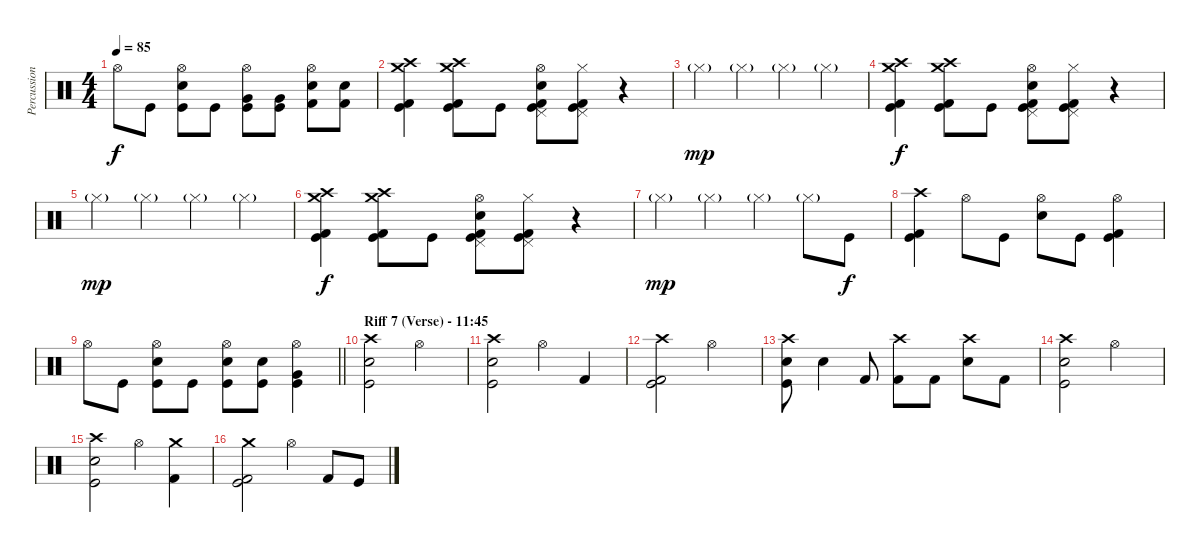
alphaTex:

\track ("Percussion" "Percussion") {instrument percussion}
\staff {score}
\articulation defaults
\ts (4 4)
\tempo 85
\clef neutral
\ks c "Hi-Hat (open)".8{dy f} "Kick (hit)".8
("Kick (hit)" "Snare (hit) 2" "Hi-Hat (open)").8 "Kick (hit)".8 ("Kick (hit)" "Very Low Tom (hit)" "Hi-Hat (open)").8 ("Kick (hit)" "Very Low Tom (hit)").8 ("Kick (hit) 2" "Snare (hit) 2" "Hi-Hat (open)").8 ("Kick (hit) 2" "Snare (hit) 2").8 |
("Kick (hit)" "Kick (hit) 2" "Crash high (hit)" "Crash medium (hit)").4 ("Kick (hit)" "Kick (hit) 2" "Crash high (hit)" "Crash medium (hit)").8 "Kick (hit)".8 ("Kick (hit)" "Kick (hit) 2" "Snare (hit) 2" "Pedal Hi-Hat (hit)" "Hi-Hat (open)").8 ("Kick (hit)" "Kick (hit) 2" "Pedal Hi-Hat (hit)" "Hi-Hat (closed)").8 r.4 |
"Hi-Hat (closed)"{g}.4{dy mp} "Hi-Hat (closed)"{g}.4 "Hi-Hat (closed)"{g}.4 "Hi-Hat (closed)"{g}.4 |
("Kick (hit)" "Kick (hit) 2" "Crash high (hit)" "Crash medium (hit)").4{dy f} ("Kick (hit)" "Kick (hit) 2" "Crash high (hit)" "Crash medium (hit)").8 "Kick (hit)".8 ("Kick (hit)" "Kick (hit) 2" "Snare (hit) 2" "Pedal Hi-Hat (hit)" "Hi-Hat (open)").8 ("Kick (hit)" "Kick (hit) 2" "Pedal Hi-Hat (hit)" "Hi-Hat (closed)").8 r.4 |
"Hi-Hat (closed)"{g}.4{dy mp} "Hi-Hat (closed)"{g}.4 "Hi-Hat (closed)"{g}.4 "Hi-Hat (closed)"{g}.4 |
("Kick (hit)" "Kick (hit) 2" "Crash high (hit)" "Crash medium (hit)").4{dy f} ("Kick (hit)" "Kick (hit) 2" "Crash high (hit)" "Crash medium (hit)").8 "Kick (hit)".8 ("Kick (hit)" "Kick (hit) 2" "Snare (hit) 2" "Pedal Hi-Hat (hit)" "Hi-Hat (open)").8 ("Kick (hit)" "Kick (hit) 2" "Pedal Hi-Hat (hit)" "Hi-Hat (closed)").8 r.4 |
"Hi-Hat (closed)"{g}.4{dy mp} "Hi-Hat (closed)"{g}.4 "Hi-Hat (closed)"{g}.4 "Hi-Hat (closed)"{g}.8 "Kick (hit)".8{dy f} |
("Kick (hit)" "Kick (hit) 2" "Crash high (hit)").4 "Hi-Hat (open)".8 "Kick (hit)".8 ("Snare (hit) 2" "Hi-Hat (open)").8 "Kick (hit)".8 ("Kick (hit)" "Kick (hit) 2" "Hi-Hat (open)").4 |
\barLineRight lightlight "Hi-Hat (open)".8 "Kick (hit)".8
("Kick (hit)" "Snare (hit) 2" "Hi-Hat (open)").8 "Kick (hit)".8 ("Kick (hit)" "Snare (hit) 2" "Hi-Hat (open)").8 ("Kick (hit)" "Snare (hit) 2").8 ("Kick (hit)" "Very Low Tom (hit)" "Hi-Hat (open)").4 |
\section ("" "Riff 7 (Verse) - 11:45")
("Kick (hit)" "Snare (hit) 2" "Crash high (hit)").2 "Hi-Hat (open)".2 |
("Kick (hit)" "Snare (hit) 2" "Crash high (hit)").2 "Hi-Hat (open)".4 "Kick (hit) 2".4 |
("Kick (hit)" "Kick (hit) 2" "Crash high (hit)").2 "Hi-Hat (open)".2 |
("Kick (hit)" "Snare (hit) 2" "Crash high (hit)").8 "Snare (hit) 2".4 "Kick (hit) 2".8 ("Kick (hit) 2" "Crash high (hit)").8 "Kick (hit) 2".8 ("Snare (hit) 2" "Crash high (hit)").8 "Kick (hit) 2".8 |
("Kick (hit)" "Snare (hit) 2" "Crash high (hit)").2 "Hi-Hat (open)".2 |
("Kick (hit)" "Snare (hit) 2" "Crash high (hit)").2 "Hi-Hat (open)".4 ("Kick (hit) 2" "Crash medium (hit)").4 |
("Kick (hit)" "Kick (hit) 2" "Crash medium (hit)").2 "Hi-Hat (open)".4 "Kick (hit) 2".8 "Kick (hit)".8
